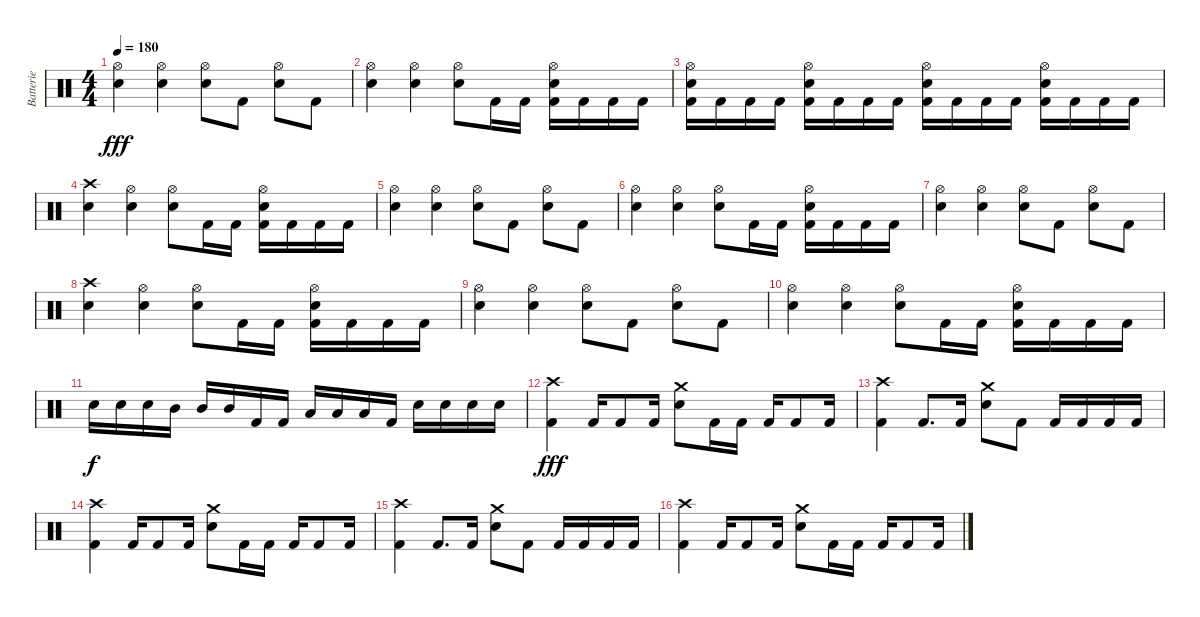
\track ("Batterie" "Batterie") {instrument percussion}
\staff {score}
\articulation defaults
\ts (4 4)
\tempo 180
\clef neutral
\ks c
("Hi-Hat (open)" "Electric Snare (hit)").4{dy fff} ("Hi-Hat (open)" "Electric Snare (hit)").4 ("Hi-Hat (open)" "Electric Snare (hit)").8 "Kick (hit) 2".8 ("Hi-Hat (open)" "Electric Snare (hit)").8 "Kick (hit) 2".8 |
("Hi-Hat (open)" "Electric Snare (hit)").4 ("Hi-Hat (open)" "Electric Snare (hit)").4 ("Hi-Hat (open)" "Electric Snare (hit)").8 "Kick (hit) 2".16 "Kick (hit) 2".16 ("Hi-Hat (open)" "Electric Snare (hit)" "Kick (hit) 2").16 "Kick (hit) 2".16 "Kick (hit) 2".16 "Kick (hit) 2".16 |
("Hi-Hat (open)" "Electric Snare (hit)" "Kick (hit) 2").16 "Kick (hit) 2".16 "Kick (hit) 2".16 "Kick (hit) 2".16 ("Hi-Hat (open)" "Electric Snare (hit)" "Kick (hit) 2").16 "Kick (hit) 2".16 "Kick (hit) 2".16 "Kick (hit) 2".16 ("Hi-Hat (open)" "Electric Snare (hit)" "Kick (hit) 2").16 "Kick (hit) 2".16 "Kick (hit) 2".16 "Kick (hit) 2".16 ("Hi-Hat (open)" "Electric Snare (hit)" "Kick (hit) 2").16 "Kick (hit) 2".16 "Kick (hit) 2".16 "Kick (hit) 2".16 |
("Crash high (hit)" "Electric Snare (hit)").4 ("Hi-Hat (open)" "Electric Snare (hit)").4 ("Hi-Hat (open)" "Electric Snare (hit)").8 "Kick (hit) 2".16 "Kick (hit) 2".16 ("Hi-Hat (open)" "Electric Snare (hit)" "Kick (hit) 2").16 "Kick (hit) 2".16 "Kick (hit) 2".16 "Kick (hit) 2".16 |
("Hi-Hat (open)" "Electric Snare (hit)").4 ("Hi-Hat (open)" "Electric Snare (hit)").4 ("Hi-Hat (open)" "Electric Snare (hit)").8 "Kick (hit) 2".8 ("Hi-Hat (open)" "Electric Snare (hit)").8 "Kick (hit) 2".8 |
("Hi-Hat (open)" "Electric Snare (hit)").4 ("Hi-Hat (open)" "Electric Snare (hit)").4 ("Hi-Hat (open)" "Electric Snare (hit)").8 "Kick (hit) 2".16 "Kick (hit) 2".16 ("Hi-Hat (open)" "Electric Snare (hit)" "Kick (hit) 2").16 "Kick (hit) 2".16 "Kick (hit) 2".16 "Kick (hit) 2".16 |
("Hi-Hat (open)" "Electric Snare (hit)").4 ("Hi-Hat (open)" "Electric Snare (hit)").4 ("Hi-Hat (open)" "Electric Snare (hit)").8 "Kick (hit) 2".8 ("Hi-Hat (open)" "Electric Snare (hit)").8 "Kick (hit) 2".8 |
("Crash high (hit)" "Electric Snare (hit)").4 ("Hi-Hat (open)" "Electric Snare (hit)").4 ("Hi-Hat (open)" "Electric Snare (hit)").8 "Kick (hit) 2".16 "Kick (hit) 2".16 ("Hi-Hat (open)" "Electric Snare (hit)" "Kick (hit) 2").16 "Kick (hit) 2".16 "Kick (hit) 2".16 "Kick (hit) 2".16 |
("Hi-Hat (open)" "Electric Snare (hit)").4 ("Hi-Hat (open)" "Electric Snare (hit)").4 ("Hi-Hat (open)" "Electric Snare (hit)").8 "Kick (hit) 2".8 ("Hi-Hat (open)" "Electric Snare (hit)").8 "Kick (hit) 2".8 |
("Hi-Hat (open)" "Electric Snare (hit)").4 ("Hi-Hat (open)" "Electric Snare (hit)").4 ("Hi-Hat (open)" "Electric Snare (hit)").8 "Kick (hit) 2".16 "Kick (hit) 2".16 ("Hi-Hat (open)" "Electric Snare (hit)" "Kick (hit) 2").16 "Kick (hit) 2".16 "Kick (hit) 2".16 "Kick (hit) 2".16 |
"Electric Snare (hit)".16{dy f} "Electric Snare (hit)".16 "Electric Snare (hit)".16 "Mid Tom (hit)".16 "Mid Tom (hit)".16 "Mid Tom (hit)".16 "Kick (hit) 2".16 "Kick (hit) 2".16 "Low Tom (hit)".16 "Low Tom (hit)".16 "Low Tom (hit)".16 "Kick (hit) 2".16 "Electric Snare (hit)".16 "Electric Snare (hit)".16 "Electric Snare (hit)".16 "Electric Snare (hit)".16 |
("Crash high (hit)" "Kick (hit) 2").4{dy fff} "Kick (hit) 2".16 "Kick (hit) 2".8 "Kick (hit) 2".16 ("Crash medium (hit)" "Electric Snare (hit)").8 "Kick (hit) 2".16 "Kick (hit) 2".16 "Kick (hit) 2".16 "Kick (hit) 2".8 "Kick (hit) 2".16 |
("Crash high (hit)" "Kick (hit) 2").4 "Kick (hit) 2".8{d} "Kick (hit) 2".16 ("Crash medium (hit)" "Electric Snare (hit)").8 "Kick (hit) 2".8 "Kick (hit) 2".16 "Kick (hit) 2".16 "Kick (hit) 2".16 "Kick (hit) 2".16 |
("Crash high (hit)" "Kick (hit) 2").4 "Kick (hit) 2".16 "Kick (hit) 2".8 "Kick (hit) 2".16 ("Crash medium (hit)" "Electric Snare (hit)").8 "Kick (hit) 2".16 "Kick (hit) 2".16 "Kick (hit) 2".16 "Kick (hit) 2".8 "Kick (hit) 2".16 |
("Crash high (hit)" "Kick (hit) 2").4 "Kick (hit) 2".8{d} "Kick (hit) 2".16 ("Crash medium (hit)" "Electric Snare (hit)").8 "Kick (hit) 2".8 "Kick (hit) 2".16 "Kick (hit) 2".16 "Kick (hit) 2".16 "Kick (hit) 2".16 |
("Crash high (hit)" "Kick (hit) 2").4 "Kick (hit) 2".16 "Kick (hit) 2".8 "Kick (hit) 2".16 ("Crash medium (hit)" "Electric Snare (hit)").8 "Kick (hit) 2".16 "Kick (hit) 2".16 "Kick (hit) 2".16 "Kick (hit) 2".8 "Kick (hit) 2".16
